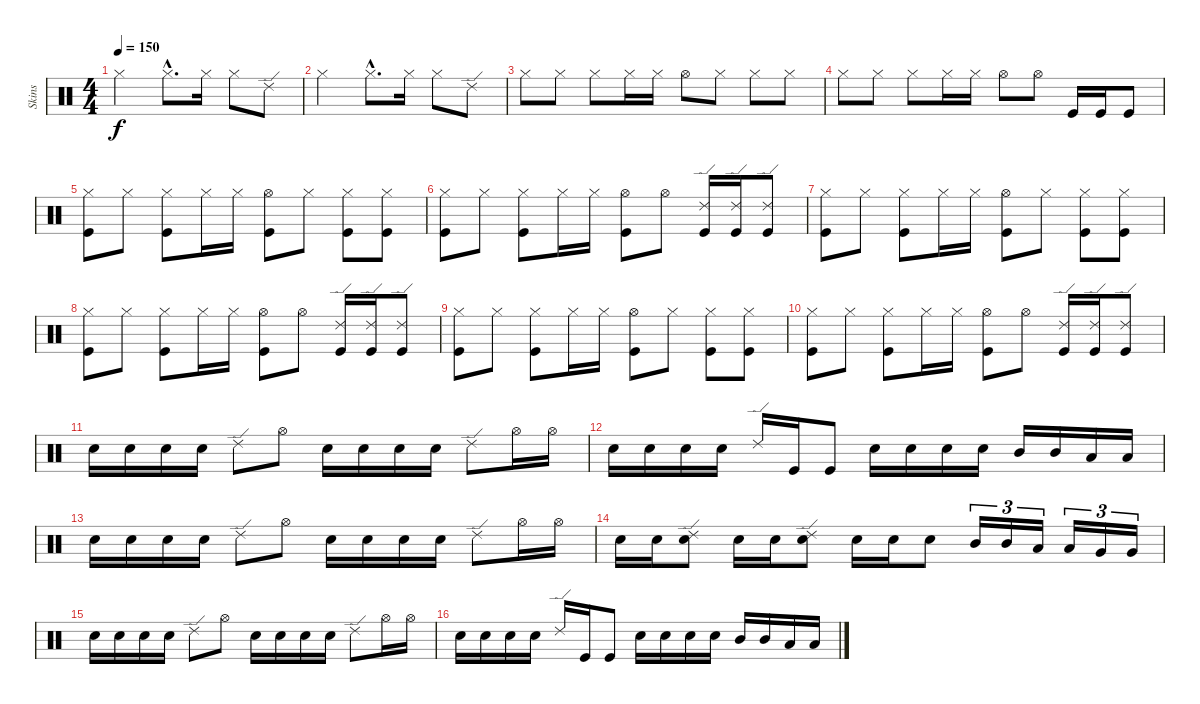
\track ("Skins" "Skins") {instrument percussion}
\staff {score}
\articulation defaults
\ts (4 4)
\tempo 150
\clef neutral
\ks c "Hi-Hat (closed)".2{dy f} "Hi-Hat (closed)"{hac}.8{d} "Hi-Hat (closed)".16 "Hi-Hat (closed)".8 "Ride (edge) 2".8
|
"Hi-Hat (closed)".2 "Hi-Hat (closed)"{hac}.8{d} "Hi-Hat (closed)".16 "Hi-Hat (closed)".8 "Ride (edge) 2".8 |
"Hi-Hat (closed)".8 "Hi-Hat (closed)".8 "Hi-Hat (closed)".8 "Hi-Hat (closed)".16 "Hi-Hat (closed)".16 "Hi-Hat (open)".8 "Hi-Hat (closed)".8 "Hi-Hat (closed)".8 "Hi-Hat (closed)".8 |
"Hi-Hat (closed)".8 "Hi-Hat (closed)".8 "Hi-Hat (closed)".8 "Hi-Hat (closed)".16 "Hi-Hat (closed)".16 "Hi-Hat (open)".8 "Hi-Hat (open)".8 "Kick (hit)".16 "Kick (hit)".16 "Kick (hit)".8 |
("Hi-Hat (closed)" "Kick (hit)").8 "Hi-Hat (closed)".8 ("Hi-Hat (closed)" "Kick (hit)").8 "Hi-Hat (closed)".16 "Hi-Hat (closed)".16 ("Hi-Hat (open)" "Kick (hit)").8 "Hi-Hat (closed)".8 ("Hi-Hat (closed)" "Kick (hit)").8 ("Hi-Hat (closed)" "Kick (hit)").8 |
("Hi-Hat (closed)" "Kick (hit)").8 "Hi-Hat (closed)".8 ("Hi-Hat (closed)" "Kick (hit)").8 "Hi-Hat (closed)".16 "Hi-Hat (closed)".16 ("Hi-Hat (open)" "Kick (hit)").8 "Hi-Hat (open)".8 ("Ride (edge) 2" "Kick (hit)").16 ("Ride (edge) 2" "Kick (hit)").16 ("Ride (edge) 2" "Kick (hit)").8 |
("Hi-Hat (closed)" "Kick (hit)").8 "Hi-Hat (closed)".8 ("Hi-Hat (closed)" "Kick (hit)").8 "Hi-Hat (closed)".16 "Hi-Hat (closed)".16 ("Hi-Hat (open)" "Kick (hit)").8 "Hi-Hat (closed)".8 ("Hi-Hat (closed)" "Kick (hit)").8 ("Hi-Hat (closed)" "Kick (hit)").8 |
("Hi-Hat (closed)" "Kick (hit)").8 "Hi-Hat (closed)".8 ("Hi-Hat (closed)" "Kick (hit)").8 "Hi-Hat (closed)".16 "Hi-Hat (closed)".16 ("Hi-Hat (open)" "Kick (hit)").8 "Hi-Hat (open)".8 ("Ride (edge) 2" "Kick (hit)").16 ("Ride (edge) 2" "Kick (hit)").16 ("Ride (edge) 2" "Kick (hit)").8 |
("Hi-Hat (closed)" "Kick (hit)").8 "Hi-Hat (closed)".8 ("Hi-Hat (closed)" "Kick (hit)").8 "Hi-Hat (closed)".16 "Hi-Hat (closed)".16 ("Hi-Hat (open)" "Kick (hit)").8 "Hi-Hat (closed)".8 ("Hi-Hat (closed)" "Kick (hit)").8 ("Hi-Hat (closed)" "Kick (hit)").8 |
("Hi-Hat (closed)" "Kick (hit)").8 "Hi-Hat (closed)".8 ("Hi-Hat (closed)" "Kick (hit)").8 "Hi-Hat (closed)".16 "Hi-Hat (closed)".16 ("Hi-Hat (open)" "Kick (hit)").8 "Hi-Hat (open)".8 ("Ride (edge) 2" "Kick (hit)").16 ("Ride (edge) 2" "Kick (hit)").16 ("Ride (edge) 2" "Kick (hit)").8 |
"Snare (hit) 2".16 "Snare (hit) 2".16 "Snare (hit) 2".16 "Snare (hit) 2".16 "Ride (edge) 2".8 "Hi-Hat (open)".8 "Snare (hit) 2".16 "Snare (hit) 2".16 "Snare (hit) 2".16 "Snare (hit) 2".16 "Ride (edge) 2".8 "Hi-Hat (open)".16 "Hi-Hat (open)".16 |
"Electric Snare (hit)".16 "Electric Snare (hit)".16 "Snare (hit) 2".16 "Snare (hit) 2".16 "Ride (edge) 2".16 "Kick (hit)".16 "Kick (hit)".8 "Electric Snare (hit)".16 "Electric Snare (hit)".16 "Snare (hit) 2".16 "Snare (hit) 2".16 "Mid Tom (hit)".16 "Mid Tom (hit)".16 "Low Tom (hit)".16 "Low Tom (hit)".16 |
"Snare (hit) 2".16 "Snare (hit) 2".16 "Snare (hit) 2".16 "Snare (hit) 2".16 "Ride (edge) 2".8 "Hi-Hat (open)".8 "Snare (hit) 2".16 "Snare (hit) 2".16 "Snare (hit) 2".16 "Snare (hit) 2".16 "Ride (edge) 2".8 "Hi-Hat (open)".16 "Hi-Hat (open)".16 |
"Snare (hit) 2".16 "Snare (hit) 2".16 ("Snare (hit) 2" "Ride (edge) 2").8 "Electric Snare (hit)".16 "Electric Snare (hit)".16 ("Electric Snare (hit)" "Ride (edge) 2").8 "Snare (hit) 2".16 "Snare (hit) 2".16 "Snare (hit) 2".8 "Mid Tom (hit)".16{tu (3 2)} "Mid Tom (hit)".16{tu (3 2)} "Low Tom (hit)".16{tu (3 2)} "Low Tom (hit)".16{tu (3 2)} "Very Low Tom (hit)".16{tu (3 2)} "Very Low Tom (hit)".16{tu (3 2)} |
"Snare (hit) 2".16 "Snare (hit) 2".16 "Snare (hit) 2".16 "Snare (hit) 2".16 "Ride (edge) 2".8 "Hi-Hat (open)".8 "Snare (hit) 2".16 "Snare (hit) 2".16 "Snare (hit) 2".16 "Snare (hit) 2".16 "Ride (edge) 2".8 "Hi-Hat (open)".16 "Hi-Hat (open)".16 |
"Electric Snare (hit)".16 "Electric Snare (hit)".16 "Snare (hit) 2".16 "Snare (hit) 2".16 "Ride (edge) 2".16 "Kick (hit)".16 "Kick (hit)".8 "Electric Snare (hit)".16 "Electric Snare (hit)".16 "Snare (hit) 2".16 "Snare (hit) 2".16 "Mid Tom (hit)".16 "Mid Tom (hit)".16 "Low Tom (hit)".16 "Low Tom (hit)".16
